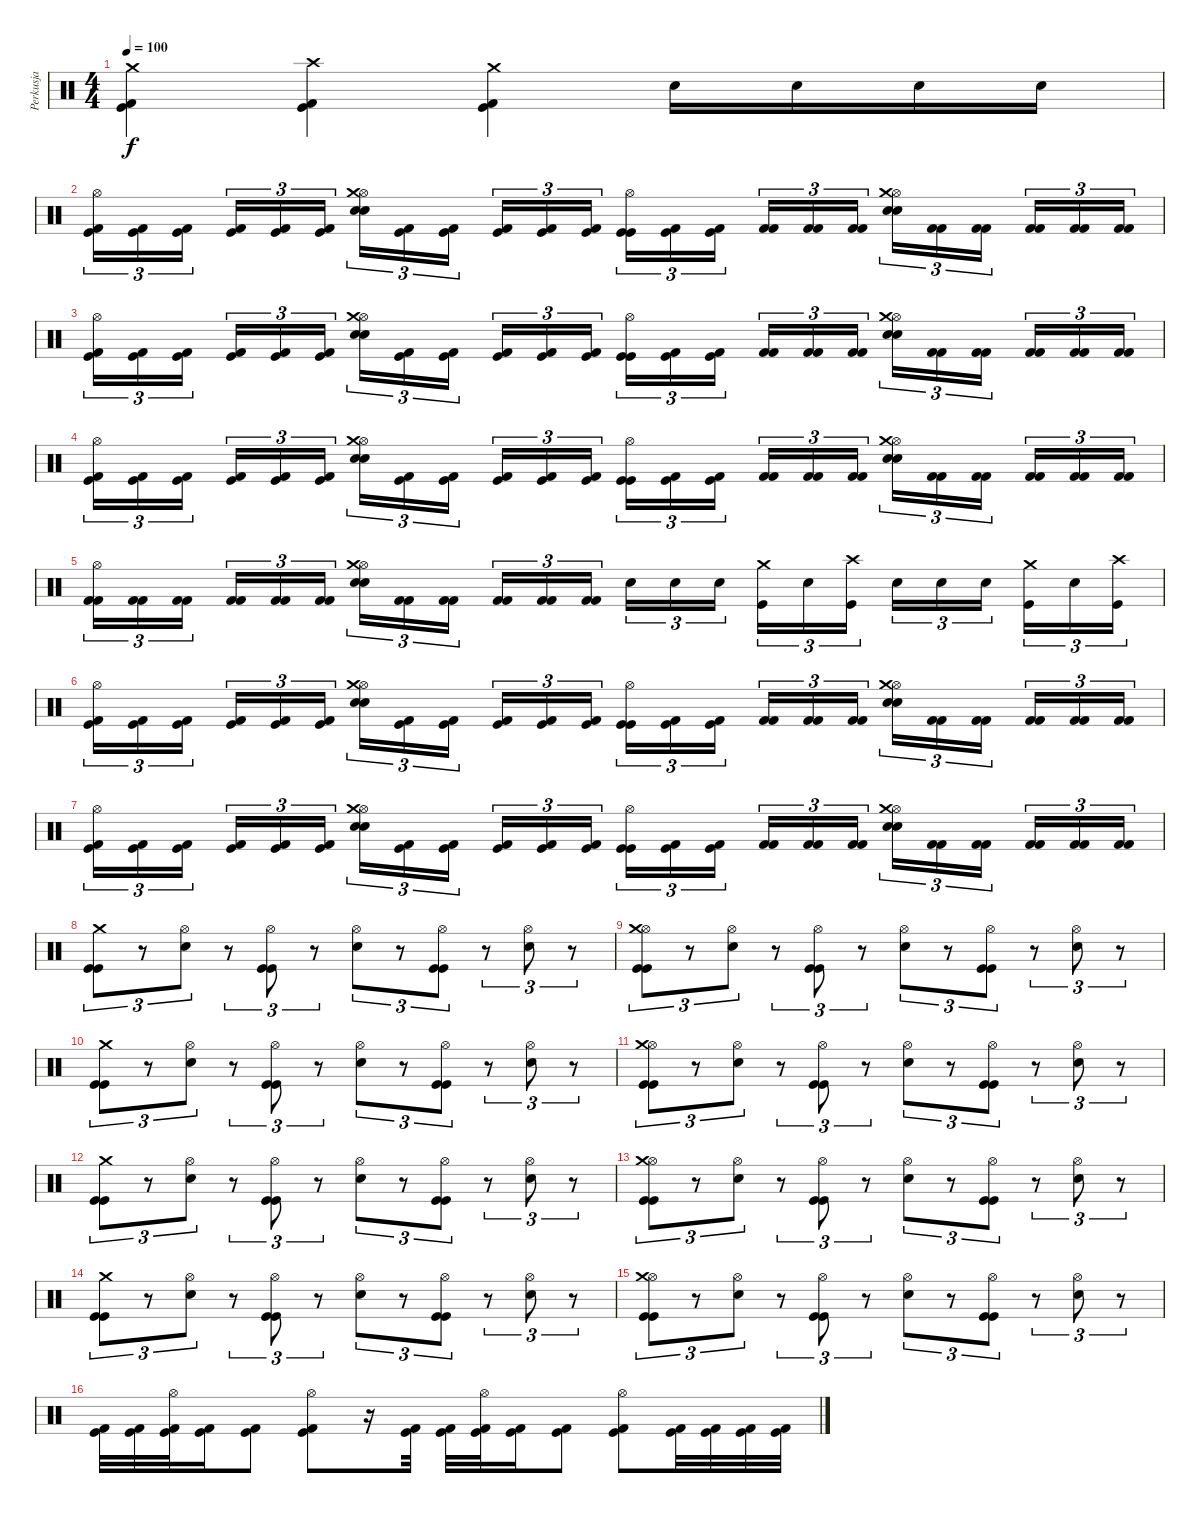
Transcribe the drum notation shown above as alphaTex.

\track ("Perkusja" "Perkusja") {instrument percussion}
\staff {score}
\articulation defaults
\ts (4 4)
\tempo 100
\clef neutral
\ks c
("Crash medium (hit)" "Kick (hit) 2" "Kick (hit)").4{dy f} ("Crash high (hit)" "Kick (hit) 2" "Kick (hit)").4 ("Crash medium (hit)" "Kick (hit) 2" "Kick (hit)").4 "Snare (hit) 2".16 "Snare (hit) 2".16 "Snare (hit) 2".16 "Snare (hit) 2".16 |
("Hi-Hat (open)" "Kick (hit) 2" "Kick (hit)").16{tu (3 2)} ("Kick (hit) 2" "Kick (hit)").16{tu (3 2)} ("Kick (hit) 2" "Kick (hit)").16{tu (3 2)} ("Kick (hit) 2" "Kick (hit)").16{tu (3 2)} ("Kick (hit) 2" "Kick (hit)").16{tu (3 2)} ("Kick (hit) 2" "Kick (hit)").16{tu (3 2)} ("Hi-Hat (open)" "Crash medium (hit)" "Snare (hit) 2" "Snare (hit) 2").16{tu (3 2)} ("Kick (hit) 2" "Kick (hit)").16{tu (3 2)} ("Kick (hit) 2" "Kick (hit)").16{tu (3 2)} ("Kick (hit) 2" "Kick (hit)").16{tu (3 2)} ("Kick (hit) 2" "Kick (hit)").16{tu (3 2)} ("Kick (hit) 2" "Kick (hit)").16{tu (3 2)} ("Hi-Hat (open)" "Kick (hit)" "Kick (hit)").16{tu (3 2)} ("Kick (hit) 2" "Kick (hit)").16{tu (3 2)} ("Kick (hit) 2" "Kick (hit)").16{tu (3 2)} ("Kick (hit) 2" "Kick (hit) 2").16{tu (3 2)} ("Kick (hit) 2" "Kick (hit) 2").16{tu (3 2)} ("Kick (hit) 2" "Kick (hit) 2").16{tu (3 2)} ("Hi-Hat (open)" "Crash medium (hit)" "Snare (hit) 2" "Snare (hit) 2").16{tu (3 2)} ("Kick (hit) 2" "Kick (hit) 2").16{tu (3 2)} ("Kick (hit) 2" "Kick (hit) 2").16{tu (3 2)} ("Kick (hit) 2" "Kick (hit) 2").16{tu (3 2)} ("Kick (hit) 2" "Kick (hit) 2").16{tu (3 2)} ("Kick (hit) 2" "Kick (hit) 2").16{tu (3 2)} |
("Hi-Hat (open)" "Kick (hit) 2" "Kick (hit)").16{tu (3 2)} ("Kick (hit) 2" "Kick (hit)").16{tu (3 2)} ("Kick (hit) 2" "Kick (hit)").16{tu (3 2)} ("Kick (hit) 2" "Kick (hit)").16{tu (3 2)} ("Kick (hit) 2" "Kick (hit)").16{tu (3 2)} ("Kick (hit) 2" "Kick (hit)").16{tu (3 2)} ("Hi-Hat (open)" "Crash medium (hit)" "Snare (hit) 2" "Snare (hit) 2").16{tu (3 2)} ("Kick (hit) 2" "Kick (hit)").16{tu (3 2)} ("Kick (hit) 2" "Kick (hit)").16{tu (3 2)} ("Kick (hit) 2" "Kick (hit)").16{tu (3 2)} ("Kick (hit) 2" "Kick (hit)").16{tu (3 2)} ("Kick (hit) 2" "Kick (hit)").16{tu (3 2)} ("Hi-Hat (open)" "Kick (hit)" "Kick (hit)").16{tu (3 2)} ("Kick (hit) 2" "Kick (hit)").16{tu (3 2)} ("Kick (hit) 2" "Kick (hit)").16{tu (3 2)} ("Kick (hit) 2" "Kick (hit) 2").16{tu (3 2)} ("Kick (hit) 2" "Kick (hit) 2").16{tu (3 2)} ("Kick (hit) 2" "Kick (hit) 2").16{tu (3 2)} ("Hi-Hat (open)" "Crash medium (hit)" "Snare (hit) 2" "Snare (hit) 2").16{tu (3 2)} ("Kick (hit) 2" "Kick (hit) 2").16{tu (3 2)} ("Kick (hit) 2" "Kick (hit) 2").16{tu (3 2)} ("Kick (hit) 2" "Kick (hit) 2").16{tu (3 2)} ("Kick (hit) 2" "Kick (hit) 2").16{tu (3 2)} ("Kick (hit) 2" "Kick (hit) 2").16{tu (3 2)} |
("Hi-Hat (open)" "Kick (hit) 2" "Kick (hit)").16{tu (3 2)} ("Kick (hit) 2" "Kick (hit)").16{tu (3 2)} ("Kick (hit) 2" "Kick (hit)").16{tu (3 2)} ("Kick (hit) 2" "Kick (hit)").16{tu (3 2)} ("Kick (hit) 2" "Kick (hit)").16{tu (3 2)} ("Kick (hit) 2" "Kick (hit)").16{tu (3 2)} ("Hi-Hat (open)" "Crash medium (hit)" "Snare (hit) 2" "Snare (hit) 2").16{tu (3 2)} ("Kick (hit) 2" "Kick (hit)").16{tu (3 2)} ("Kick (hit) 2" "Kick (hit)").16{tu (3 2)} ("Kick (hit) 2" "Kick (hit)").16{tu (3 2)} ("Kick (hit) 2" "Kick (hit)").16{tu (3 2)} ("Kick (hit) 2" "Kick (hit)").16{tu (3 2)} ("Hi-Hat (open)" "Kick (hit)" "Kick (hit)").16{tu (3 2)} ("Kick (hit) 2" "Kick (hit)").16{tu (3 2)} ("Kick (hit) 2" "Kick (hit)").16{tu (3 2)} ("Kick (hit) 2" "Kick (hit) 2").16{tu (3 2)} ("Kick (hit) 2" "Kick (hit) 2").16{tu (3 2)} ("Kick (hit) 2" "Kick (hit) 2").16{tu (3 2)} ("Hi-Hat (open)" "Crash medium (hit)" "Snare (hit) 2" "Snare (hit) 2").16{tu (3 2)} ("Kick (hit) 2" "Kick (hit) 2").16{tu (3 2)} ("Kick (hit) 2" "Kick (hit) 2").16{tu (3 2)} ("Kick (hit) 2" "Kick (hit) 2").16{tu (3 2)} ("Kick (hit) 2" "Kick (hit) 2").16{tu (3 2)} ("Kick (hit) 2" "Kick (hit) 2").16{tu (3 2)} |
("Hi-Hat (open)" "Kick (hit) 2" "Kick (hit) 2").16{tu (3 2)} ("Kick (hit) 2" "Kick (hit) 2").16{tu (3 2)} ("Kick (hit) 2" "Kick (hit) 2").16{tu (3 2)} ("Kick (hit) 2" "Kick (hit) 2").16{tu (3 2)} ("Kick (hit) 2" "Kick (hit) 2").16{tu (3 2)} ("Kick (hit) 2" "Kick (hit) 2").16{tu (3 2)} ("Hi-Hat (open)" "Crash medium (hit)" "Snare (hit) 2" "Snare (hit) 2").16{tu (3 2)} ("Kick (hit) 2" "Kick (hit) 2").16{tu (3 2)} ("Kick (hit) 2" "Kick (hit) 2").16{tu (3 2)} ("Kick (hit) 2" "Kick (hit) 2").16{tu (3 2)} ("Kick (hit) 2" "Kick (hit) 2").16{tu (3 2)} ("Kick (hit) 2" "Kick (hit) 2").16{tu (3 2)} "Electric Snare (hit)".16{tu (3 2)} "Electric Snare (hit)".16{tu (3 2)} "Electric Snare (hit)".16{tu (3 2)} ("Crash medium (hit)" "Kick (hit)").16{tu (3 2)} "Snare (hit) 2".16{tu (3 2)} ("Crash high (hit)" "Kick (hit)").16{tu (3 2)} "Electric Snare (hit)".16{tu (3 2)} "Electric Snare (hit)".16{tu (3 2)} "Electric Snare (hit)".16{tu (3 2)} ("Crash medium (hit)" "Kick (hit)").16{tu (3 2)} "Snare (hit) 2".16{tu (3 2)} ("Crash high (hit)" "Kick (hit)").16{tu (3 2)} |
("Hi-Hat (open)" "Kick (hit) 2" "Kick (hit)").16{tu (3 2)} ("Kick (hit) 2" "Kick (hit)").16{tu (3 2)} ("Kick (hit) 2" "Kick (hit)").16{tu (3 2)} ("Kick (hit) 2" "Kick (hit)").16{tu (3 2)} ("Kick (hit) 2" "Kick (hit)").16{tu (3 2)} ("Kick (hit) 2" "Kick (hit)").16{tu (3 2)} ("Hi-Hat (open)" "Crash medium (hit)" "Snare (hit) 2" "Snare (hit) 2").16{tu (3 2)} ("Kick (hit) 2" "Kick (hit)").16{tu (3 2)} ("Kick (hit) 2" "Kick (hit)").16{tu (3 2)} ("Kick (hit) 2" "Kick (hit)").16{tu (3 2)} ("Kick (hit) 2" "Kick (hit)").16{tu (3 2)} ("Kick (hit) 2" "Kick (hit)").16{tu (3 2)} ("Hi-Hat (open)" "Kick (hit)" "Kick (hit)").16{tu (3 2)} ("Kick (hit) 2" "Kick (hit)").16{tu (3 2)} ("Kick (hit) 2" "Kick (hit)").16{tu (3 2)} ("Kick (hit) 2" "Kick (hit) 2").16{tu (3 2)} ("Kick (hit) 2" "Kick (hit) 2").16{tu (3 2)} ("Kick (hit) 2" "Kick (hit) 2").16{tu (3 2)} ("Hi-Hat (open)" "Crash medium (hit)" "Snare (hit) 2" "Snare (hit) 2").16{tu (3 2)} ("Kick (hit) 2" "Kick (hit) 2").16{tu (3 2)} ("Kick (hit) 2" "Kick (hit) 2").16{tu (3 2)} ("Kick (hit) 2" "Kick (hit) 2").16{tu (3 2)} ("Kick (hit) 2" "Kick (hit) 2").16{tu (3 2)} ("Kick (hit) 2" "Kick (hit) 2").16{tu (3 2)} |
("Hi-Hat (open)" "Kick (hit) 2" "Kick (hit)").16{tu (3 2)} ("Kick (hit) 2" "Kick (hit)").16{tu (3 2)} ("Kick (hit) 2" "Kick (hit)").16{tu (3 2)} ("Kick (hit) 2" "Kick (hit)").16{tu (3 2)} ("Kick (hit) 2" "Kick (hit)").16{tu (3 2)} ("Kick (hit) 2" "Kick (hit)").16{tu (3 2)} ("Hi-Hat (open)" "Crash medium (hit)" "Snare (hit) 2" "Snare (hit) 2").16{tu (3 2)} ("Kick (hit) 2" "Kick (hit)").16{tu (3 2)} ("Kick (hit) 2" "Kick (hit)").16{tu (3 2)} ("Kick (hit) 2" "Kick (hit)").16{tu (3 2)} ("Kick (hit) 2" "Kick (hit)").16{tu (3 2)} ("Kick (hit) 2" "Kick (hit)").16{tu (3 2)} ("Hi-Hat (open)" "Kick (hit)" "Kick (hit)").16{tu (3 2)} ("Kick (hit) 2" "Kick (hit)").16{tu (3 2)} ("Kick (hit) 2" "Kick (hit)").16{tu (3 2)} ("Kick (hit) 2" "Kick (hit) 2").16{tu (3 2)} ("Kick (hit) 2" "Kick (hit) 2").16{tu (3 2)} ("Kick (hit) 2" "Kick (hit) 2").16{tu (3 2)} ("Hi-Hat (open)" "Crash medium (hit)" "Snare (hit) 2" "Snare (hit) 2").16{tu (3 2)} ("Kick (hit) 2" "Kick (hit) 2").16{tu (3 2)} ("Kick (hit) 2" "Kick (hit) 2").16{tu (3 2)} ("Kick (hit) 2" "Kick (hit) 2").16{tu (3 2)} ("Kick (hit) 2" "Kick (hit) 2").16{tu (3 2)} ("Kick (hit) 2" "Kick (hit) 2").16{tu (3 2)} |
("Crash medium (hit)" "Kick (hit)" "Kick (hit)").8{tu (3 2)} r.8{tu (3 2)} ("Hi-Hat (open)" "Snare (hit) 2").8{tu (3 2)} r.8{tu (3 2)} ("Hi-Hat (open)" "Kick (hit)" "Kick (hit)").8{tu (3 2)} r.8{tu (3 2)} ("Hi-Hat (open)" "Snare (hit) 2").8{tu (3 2)} r.8{tu (3 2)} ("Hi-Hat (open)" "Kick (hit)" "Kick (hit)").8{tu (3 2)} r.8{tu (3 2)} ("Hi-Hat (open)" "Snare (hit) 2").8{tu (3 2)} r.8{tu (3 2)} |
("Hi-Hat (open)" "Crash medium (hit)" "Kick (hit)" "Kick (hit)").8{tu (3 2)} r.8{tu (3 2)} ("Hi-Hat (open)" "Snare (hit) 2").8{tu (3 2)} r.8{tu (3 2)} ("Hi-Hat (open)" "Kick (hit)" "Kick (hit)").8{tu (3 2)} r.8{tu (3 2)} ("Hi-Hat (open)" "Snare (hit) 2").8{tu (3 2)} r.8{tu (3 2)} ("Hi-Hat (open)" "Kick (hit)" "Kick (hit)").8{tu (3 2)} r.8{tu (3 2)} ("Hi-Hat (open)" "Snare (hit) 2").8{tu (3 2)} r.8{tu (3 2)} |
("Crash medium (hit)" "Kick (hit)" "Kick (hit)").8{tu (3 2)} r.8{tu (3 2)} ("Hi-Hat (open)" "Snare (hit) 2").8{tu (3 2)} r.8{tu (3 2)} ("Hi-Hat (open)" "Kick (hit)" "Kick (hit)").8{tu (3 2)} r.8{tu (3 2)} ("Hi-Hat (open)" "Snare (hit) 2").8{tu (3 2)} r.8{tu (3 2)} ("Hi-Hat (open)" "Kick (hit)" "Kick (hit)").8{tu (3 2)} r.8{tu (3 2)} ("Hi-Hat (open)" "Snare (hit) 2").8{tu (3 2)} r.8{tu (3 2)} |
("Hi-Hat (open)" "Crash medium (hit)" "Kick (hit)" "Kick (hit)").8{tu (3 2)} r.8{tu (3 2)} ("Hi-Hat (open)" "Snare (hit) 2").8{tu (3 2)} r.8{tu (3 2)} ("Hi-Hat (open)" "Kick (hit)" "Kick (hit)").8{tu (3 2)} r.8{tu (3 2)} ("Hi-Hat (open)" "Snare (hit) 2").8{tu (3 2)} r.8{tu (3 2)} ("Hi-Hat (open)" "Kick (hit)" "Kick (hit)").8{tu (3 2)} r.8{tu (3 2)} ("Hi-Hat (open)" "Snare (hit) 2").8{tu (3 2)} r.8{tu (3 2)} |
("Crash medium (hit)" "Kick (hit)" "Kick (hit)").8{tu (3 2)} r.8{tu (3 2)} ("Hi-Hat (open)" "Snare (hit) 2").8{tu (3 2)} r.8{tu (3 2)} ("Hi-Hat (open)" "Kick (hit)" "Kick (hit)").8{tu (3 2)} r.8{tu (3 2)} ("Hi-Hat (open)" "Snare (hit) 2").8{tu (3 2)} r.8{tu (3 2)} ("Hi-Hat (open)" "Kick (hit)" "Kick (hit)").8{tu (3 2)} r.8{tu (3 2)} ("Hi-Hat (open)" "Snare (hit) 2").8{tu (3 2)} r.8{tu (3 2)} |
("Hi-Hat (open)" "Crash medium (hit)" "Kick (hit)" "Kick (hit)").8{tu (3 2)} r.8{tu (3 2)} ("Hi-Hat (open)" "Snare (hit) 2").8{tu (3 2)} r.8{tu (3 2)} ("Hi-Hat (open)" "Kick (hit)" "Kick (hit)").8{tu (3 2)} r.8{tu (3 2)} ("Hi-Hat (open)" "Snare (hit) 2").8{tu (3 2)} r.8{tu (3 2)} ("Hi-Hat (open)" "Kick (hit)" "Kick (hit)").8{tu (3 2)} r.8{tu (3 2)} ("Hi-Hat (open)" "Snare (hit) 2").8{tu (3 2)} r.8{tu (3 2)} |
("Crash medium (hit)" "Kick (hit)" "Kick (hit)").8{tu (3 2)} r.8{tu (3 2)} ("Hi-Hat (open)" "Snare (hit) 2").8{tu (3 2)} r.8{tu (3 2)} ("Hi-Hat (open)" "Kick (hit)" "Kick (hit)").8{tu (3 2)} r.8{tu (3 2)} ("Hi-Hat (open)" "Snare (hit) 2").8{tu (3 2)} r.8{tu (3 2)} ("Hi-Hat (open)" "Kick (hit)" "Kick (hit)").8{tu (3 2)} r.8{tu (3 2)} ("Hi-Hat (open)" "Snare (hit) 2").8{tu (3 2)} r.8{tu (3 2)} |
("Hi-Hat (open)" "Crash medium (hit)" "Kick (hit)" "Kick (hit)").8{tu (3 2)} r.8{tu (3 2)} ("Hi-Hat (open)" "Snare (hit) 2").8{tu (3 2)} r.8{tu (3 2)} ("Hi-Hat (open)" "Kick (hit)" "Kick (hit)").8{tu (3 2)} r.8{tu (3 2)} ("Hi-Hat (open)" "Snare (hit) 2").8{tu (3 2)} r.8{tu (3 2)} ("Hi-Hat (open)" "Kick (hit)" "Kick (hit)").8{tu (3 2)} r.8{tu (3 2)} ("Hi-Hat (open)" "Snare (hit) 2").8{tu (3 2)} r.8{tu (3 2)} |
("Kick (hit) 2" "Kick (hit)").32 ("Kick (hit) 2" "Kick (hit)").32 ("Hi-Hat (open)" "Kick (hit) 2" "Kick (hit)").32 ("Kick (hit) 2" "Kick (hit)").16 ("Kick (hit) 2" "Kick (hit)").8 ("Hi-Hat (open)" "Kick (hit) 2" "Kick (hit)").8 r.16 ("Kick (hit) 2" "Kick (hit)").32 ("Kick (hit) 2" "Kick (hit)").32 ("Hi-Hat (open)" "Kick (hit) 2" "Kick (hit)").32 ("Kick (hit) 2" "Kick (hit)").16 ("Kick (hit) 2" "Kick (hit)").8 ("Hi-Hat (open)" "Kick (hit) 2" "Kick (hit)").8 ("Kick (hit) 2" "Kick (hit)").32 ("Kick (hit) 2" "Kick (hit)").32 ("Kick (hit) 2" "Kick (hit)").32 ("Kick (hit) 2" "Kick (hit)").32
